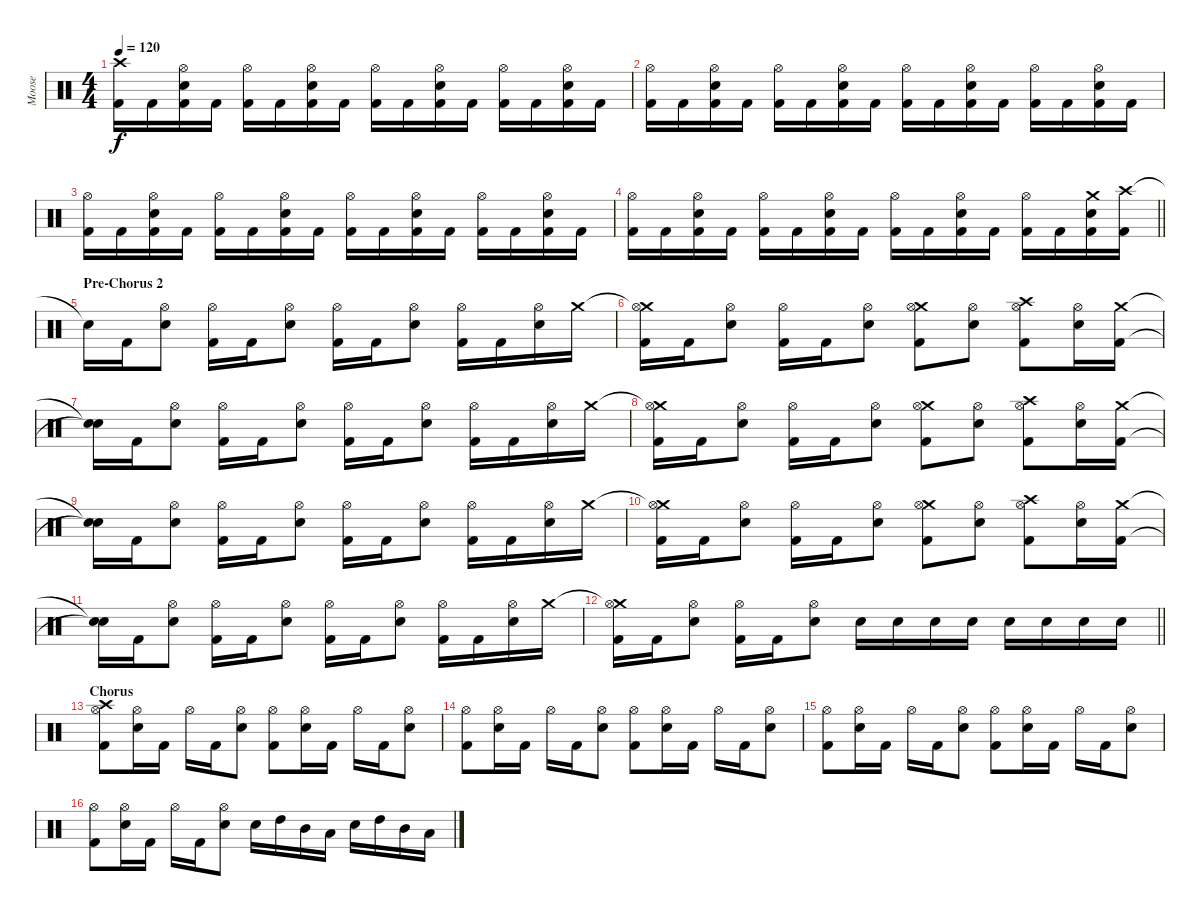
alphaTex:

\track ("Moose" "Moose") {instrument percussion}
\staff {score}
\articulation defaults
\ts (4 4)
\tempo 120
\clef neutral
\ks c
("Crash high (hit)" "Kick (hit) 2").16{dy f} "Kick (hit) 2".16 ("Hi-Hat (open)" "Electric Snare (hit)" "Kick (hit) 2").16 "Kick (hit) 2".16 ("Hi-Hat (open)" "Kick (hit) 2").16 "Kick (hit) 2".16 ("Hi-Hat (open)" "Electric Snare (hit)" "Kick (hit) 2").16 "Kick (hit) 2".16 ("Hi-Hat (open)" "Kick (hit) 2").16 "Kick (hit) 2".16 ("Hi-Hat (open)" "Electric Snare (hit)" "Kick (hit) 2").16 "Kick (hit) 2".16 ("Hi-Hat (open)" "Kick (hit) 2").16 "Kick (hit) 2".16 ("Hi-Hat (open)" "Electric Snare (hit)" "Kick (hit) 2").16 "Kick (hit) 2".16 |
("Hi-Hat (open)" "Kick (hit) 2").16 "Kick (hit) 2".16 ("Hi-Hat (open)" "Electric Snare (hit)" "Kick (hit) 2").16 "Kick (hit) 2".16 ("Hi-Hat (open)" "Kick (hit) 2").16 "Kick (hit) 2".16 ("Hi-Hat (open)" "Electric Snare (hit)" "Kick (hit) 2").16 "Kick (hit) 2".16 ("Hi-Hat (open)" "Kick (hit) 2").16 "Kick (hit) 2".16 ("Hi-Hat (open)" "Electric Snare (hit)" "Kick (hit) 2").16 "Kick (hit) 2".16 ("Hi-Hat (open)" "Kick (hit) 2").16 "Kick (hit) 2".16 ("Hi-Hat (open)" "Electric Snare (hit)" "Kick (hit) 2").16 "Kick (hit) 2".16 |
("Hi-Hat (open)" "Kick (hit) 2").16 "Kick (hit) 2".16 ("Hi-Hat (open)" "Electric Snare (hit)" "Kick (hit) 2").16 "Kick (hit) 2".16 ("Hi-Hat (open)" "Kick (hit) 2").16 "Kick (hit) 2".16 ("Hi-Hat (open)" "Electric Snare (hit)" "Kick (hit) 2").16 "Kick (hit) 2".16 ("Hi-Hat (open)" "Kick (hit) 2").16 "Kick (hit) 2".16 ("Hi-Hat (open)" "Electric Snare (hit)" "Kick (hit) 2").16 "Kick (hit) 2".16 ("Hi-Hat (open)" "Kick (hit) 2").16 "Kick (hit) 2".16 ("Hi-Hat (open)" "Electric Snare (hit)" "Kick (hit) 2").16 "Kick (hit) 2".16 |
\barLineRight lightlight
("Hi-Hat (open)" "Kick (hit) 2").16 "Kick (hit) 2".16 ("Hi-Hat (open)" "Electric Snare (hit)" "Kick (hit) 2").16 "Kick (hit) 2".16 ("Hi-Hat (open)" "Kick (hit) 2").16 "Kick (hit) 2".16 ("Hi-Hat (open)" "Electric Snare (hit)" "Kick (hit) 2").16 "Kick (hit) 2".16 ("Hi-Hat (open)" "Kick (hit) 2").16 "Kick (hit) 2".16 ("Hi-Hat (open)" "Electric Snare (hit)" "Kick (hit) 2").16 "Kick (hit) 2".16 ("Hi-Hat (open)" "Kick (hit) 2").16 "Kick (hit) 2".16 ("Crash medium (hit)" "Electric Snare (hit)" "Kick (hit) 2").16 ("Crash high (hit)" "Kick (hit) 2").16 |
\section ("" "Pre-Chorus 2")
"Snare (hit)"{t}.16 "Kick (hit) 2".16 ("Hi-Hat (open)" "Electric Snare (hit)").8 ("Hi-Hat (open)" "Kick (hit) 2").16 "Kick (hit) 2".16 ("Hi-Hat (open)" "Electric Snare (hit)").8 ("Hi-Hat (open)" "Kick (hit) 2").16 "Kick (hit) 2".16 ("Hi-Hat (open)" "Electric Snare (hit)").8 ("Hi-Hat (open)" "Kick (hit) 2").16 "Kick (hit) 2".16 ("Hi-Hat (open)" "Electric Snare (hit)").16 "Crash medium (hit)".16 |
("Crash medium (hit)"{t} "Hi-Hat (open)" "Kick (hit) 2").16 "Kick (hit) 2".16 ("Hi-Hat (open)" "Electric Snare (hit)").8 ("Hi-Hat (open)" "Kick (hit) 2").16 "Kick (hit) 2".16 ("Hi-Hat (open)" "Electric Snare (hit)").8 ("Crash medium (hit)" "Hi-Hat (open)" "Kick (hit) 2").8 ("Hi-Hat (open)" "Electric Snare (hit)").8 ("Crash high (hit)" "Hi-Hat (open)" "Kick (hit) 2").8 ("Hi-Hat (open)" "Electric Snare (hit)").16 ("Crash medium (hit)" "Kick (hit) 2").16 |
("Snare (hit)"{t} "Snare (hit)"{t}).16 "Kick (hit) 2".16 ("Hi-Hat (open)" "Electric Snare (hit)").8 ("Hi-Hat (open)" "Kick (hit) 2").16 "Kick (hit) 2".16 ("Hi-Hat (open)" "Electric Snare (hit)").8 ("Hi-Hat (open)" "Kick (hit) 2").16 "Kick (hit) 2".16 ("Hi-Hat (open)" "Electric Snare (hit)").8 ("Hi-Hat (open)" "Kick (hit) 2").16 "Kick (hit) 2".16 ("Hi-Hat (open)" "Electric Snare (hit)").16 "Crash medium (hit)".16 |
("Crash medium (hit)"{t} "Hi-Hat (open)" "Kick (hit) 2").16 "Kick (hit) 2".16 ("Hi-Hat (open)" "Electric Snare (hit)").8 ("Hi-Hat (open)" "Kick (hit) 2").16 "Kick (hit) 2".16 ("Hi-Hat (open)" "Electric Snare (hit)").8 ("Crash medium (hit)" "Hi-Hat (open)" "Kick (hit) 2").8 ("Hi-Hat (open)" "Electric Snare (hit)").8 ("Crash high (hit)" "Hi-Hat (open)" "Kick (hit) 2").8 ("Hi-Hat (open)" "Electric Snare (hit)").16 ("Crash medium (hit)" "Kick (hit) 2").16 |
("Snare (hit)"{t} "Snare (hit)"{t}).16 "Kick (hit) 2".16 ("Hi-Hat (open)" "Electric Snare (hit)").8 ("Hi-Hat (open)" "Kick (hit) 2").16 "Kick (hit) 2".16 ("Hi-Hat (open)" "Electric Snare (hit)").8 ("Hi-Hat (open)" "Kick (hit) 2").16 "Kick (hit) 2".16 ("Hi-Hat (open)" "Electric Snare (hit)").8 ("Hi-Hat (open)" "Kick (hit) 2").16 "Kick (hit) 2".16 ("Hi-Hat (open)" "Electric Snare (hit)").16 "Crash medium (hit)".16 |
("Crash medium (hit)"{t} "Hi-Hat (open)" "Kick (hit) 2").16 "Kick (hit) 2".16 ("Hi-Hat (open)" "Electric Snare (hit)").8 ("Hi-Hat (open)" "Kick (hit) 2").16 "Kick (hit) 2".16 ("Hi-Hat (open)" "Electric Snare (hit)").8 ("Crash medium (hit)" "Hi-Hat (open)" "Kick (hit) 2").8 ("Hi-Hat (open)" "Electric Snare (hit)").8 ("Crash high (hit)" "Hi-Hat (open)" "Kick (hit) 2").8 ("Hi-Hat (open)" "Electric Snare (hit)").16 ("Crash medium (hit)" "Kick (hit) 2").16 |
("Snare (hit)"{t} "Snare (hit)"{t}).16 "Kick (hit) 2".16 ("Hi-Hat (open)" "Electric Snare (hit)").8 ("Hi-Hat (open)" "Kick (hit) 2").16 "Kick (hit) 2".16 ("Hi-Hat (open)" "Electric Snare (hit)").8 ("Hi-Hat (open)" "Kick (hit) 2").16 "Kick (hit) 2".16 ("Hi-Hat (open)" "Electric Snare (hit)").8 ("Hi-Hat (open)" "Kick (hit) 2").16 "Kick (hit) 2".16 ("Hi-Hat (open)" "Electric Snare (hit)").16 "Crash medium (hit)".16 |
\barLineRight lightlight
("Crash medium (hit)"{t} "Hi-Hat (open)" "Kick (hit) 2").16 "Kick (hit) 2".16 ("Hi-Hat (open)" "Electric Snare (hit)").8 ("Hi-Hat (open)" "Kick (hit) 2").16 "Kick (hit) 2".16 ("Hi-Hat (open)" "Electric Snare (hit)").8 "Electric Snare (hit)".16 "Electric Snare (hit)".16 "Electric Snare (hit)".16 "Electric Snare (hit)".16 "Electric Snare (hit)".16 "Electric Snare (hit)".16 "Electric Snare (hit)".16 "Electric Snare (hit)".16 |
\section ("" "Chorus")
("Crash high (hit)" "Hi-Hat (open)" "Kick (hit) 2").8 ("Hi-Hat (open)" "Electric Snare (hit)").16 "Kick (hit) 2".16 "Hi-Hat (open)".16 "Kick (hit) 2".16 ("Hi-Hat (open)" "Electric Snare (hit)").8 ("Hi-Hat (open)" "Kick (hit) 2").8 ("Hi-Hat (open)" "Electric Snare (hit)").16 "Kick (hit) 2".16 "Hi-Hat (open)".16 "Kick (hit) 2".16 ("Hi-Hat (open)" "Electric Snare (hit)").8 |
("Hi-Hat (open)" "Kick (hit) 2").8 ("Hi-Hat (open)" "Electric Snare (hit)").16 "Kick (hit) 2".16 "Hi-Hat (open)".16 "Kick (hit) 2".16 ("Hi-Hat (open)" "Electric Snare (hit)").8 ("Hi-Hat (open)" "Kick (hit) 2").8 ("Hi-Hat (open)" "Electric Snare (hit)").16 "Kick (hit) 2".16 "Hi-Hat (open)".16 "Kick (hit) 2".16 ("Hi-Hat (open)" "Electric Snare (hit)").8 |
("Hi-Hat (open)" "Kick (hit) 2").8 ("Hi-Hat (open)" "Electric Snare (hit)").16 "Kick (hit) 2".16 "Hi-Hat (open)".16 "Kick (hit) 2".16 ("Hi-Hat (open)" "Electric Snare (hit)").8 ("Hi-Hat (open)" "Kick (hit) 2").8 ("Hi-Hat (open)" "Electric Snare (hit)").16 "Kick (hit) 2".16 "Hi-Hat (open)".16 "Kick (hit) 2".16 ("Hi-Hat (open)" "Electric Snare (hit)").8 |
("Hi-Hat (open)" "Kick (hit) 2").8 ("Hi-Hat (open)" "Electric Snare (hit)").16 "Kick (hit) 2".16 "Hi-Hat (open)".16 "Kick (hit) 2".16 ("Hi-Hat (open)" "Electric Snare (hit)").8 "Electric Snare (hit)".16 "High Tom (hit)".16 "Mid Tom (hit)".16 "Low Tom (hit)".16 "Electric Snare (hit)".16 "High Tom (hit)".16 "Mid Tom (hit)".16 "Low Tom (hit)".16
